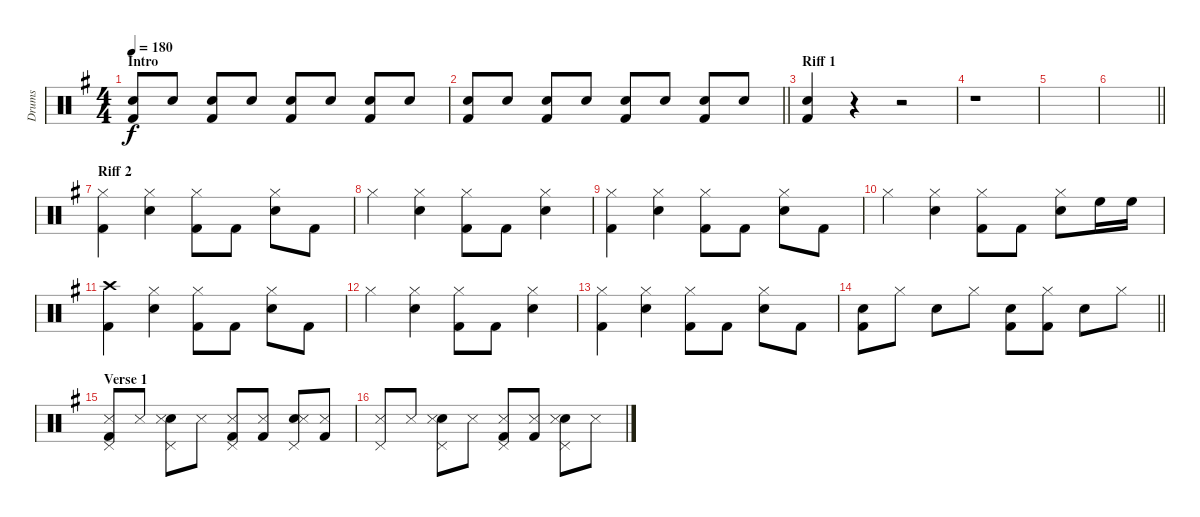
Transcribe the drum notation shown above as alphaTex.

\track ("Drums" "Drums") {instrument percussion bank 255}
\staff {score}
\articulation defaults
\ts (4 4)
\section ("" "Intro")
\tempo 180
\clef neutral
\ks g
("Snare (hit) 2" "Kick (hit) 2").8{dy f} "Snare (hit) 2".8 ("Snare (hit) 2" "Kick (hit) 2").8 "Snare (hit) 2".8 ("Snare (hit) 2" "Kick (hit) 2").8 "Snare (hit) 2".8 ("Snare (hit) 2" "Kick (hit) 2").8 "Snare (hit) 2".8 |
\barLineRight lightlight
("Snare (hit) 2" "Kick (hit) 2").8 "Snare (hit) 2".8 ("Snare (hit) 2" "Kick (hit) 2").8 "Snare (hit) 2".8 ("Snare (hit) 2" "Kick (hit) 2").8 "Snare (hit) 2".8 ("Snare (hit) 2" "Kick (hit) 2").8 "Snare (hit) 2".8 |
\section ("" "Riff 1")
("Snare (hit) 2" "Kick (hit) 2").4 r.4 r.2 |
r.1 |
|
\barLineRight lightlight
|
\section ("" "Riff 2")
("Hi-Hat (closed)" "Kick (hit) 2").4 ("Hi-Hat (closed)" "Snare (hit) 2").4 ("Hi-Hat (closed)" "Kick (hit) 2").8 "Kick (hit) 2".8 ("Hi-Hat (closed)" "Snare (hit) 2").8 "Kick (hit) 2".8 |
"Hi-Hat (closed)".4 ("Hi-Hat (closed)" "Snare (hit) 2").4 ("Hi-Hat (closed)" "Kick (hit) 2").8 "Kick (hit) 2".8 ("Hi-Hat (closed)" "Snare (hit) 2").4 |
("Hi-Hat (closed)" "Kick (hit) 2").4 ("Hi-Hat (closed)" "Snare (hit) 2").4 ("Hi-Hat (closed)" "Kick (hit) 2").8 "Kick (hit) 2".8 ("Hi-Hat (closed)" "Snare (hit) 2").8 "Kick (hit) 2".8 |
"Hi-Hat (closed)".4 ("Hi-Hat (closed)" "Snare (hit) 2").4 ("Hi-Hat (closed)" "Kick (hit) 2").8 "Kick (hit) 2".8 ("Hi-Hat (closed)" "Snare (hit) 2").8 "High Floor Tom (hit)".16 "High Floor Tom (hit)".16 |
("Crash high (hit)" "Kick (hit) 2").4 ("Hi-Hat (closed)" "Snare (hit) 2").4 ("Hi-Hat (closed)" "Kick (hit) 2").8 "Kick (hit) 2".8 ("Hi-Hat (closed)" "Snare (hit) 2").8 "Kick (hit) 2".8 |
"Hi-Hat (closed)".4 ("Hi-Hat (closed)" "Snare (hit) 2").4 ("Hi-Hat (closed)" "Kick (hit) 2").8 "Kick (hit) 2".8 ("Hi-Hat (closed)" "Snare (hit) 2").4 |
("Hi-Hat (closed)" "Kick (hit) 2").4 ("Hi-Hat (closed)" "Snare (hit) 2").4 ("Hi-Hat (closed)" "Kick (hit) 2").8 "Kick (hit) 2".8 ("Hi-Hat (closed)" "Snare (hit) 2").8 "Kick (hit) 2".8 |
\barLineRight lightlight
("Snare (hit) 2" "Kick (hit) 2").8 "Hi-Hat (closed)".8 "Snare (hit) 2".8 "Hi-Hat (closed)".8 ("Snare (hit) 2" "Kick (hit) 2").8 ("Hi-Hat (closed)" "Kick (hit) 2").8 "Snare (hit) 2".8 "Hi-Hat (closed)".8 |
\section ("" "Verse 1")
("Pedal Hi-Hat (hit)" "Snare (side stick) 3" "Kick (hit) 2").8 "Snare (side stick) 3".8 ("Pedal Hi-Hat (hit)" "Snare (hit) 2" "Snare (side stick) 3").8 "Snare (side stick) 3".8 ("Pedal Hi-Hat (hit)" "Snare (side stick) 3" "Kick (hit) 2").8 ("Snare (side stick) 3" "Kick (hit) 2").8 ("Pedal Hi-Hat (hit)" "Snare (hit) 2" "Snare (side stick) 3").8 ("Snare (side stick) 3" "Kick (hit) 2").8 |
("Pedal Hi-Hat (hit)" "Snare (side stick) 3").8 "Snare (side stick) 3".8 ("Pedal Hi-Hat (hit)" "Snare (hit) 2" "Snare (side stick) 3").8 "Snare (side stick) 3".8 ("Pedal Hi-Hat (hit)" "Snare (side stick) 3" "Kick (hit) 2").8 ("Snare (side stick) 3" "Kick (hit) 2").8 ("Pedal Hi-Hat (hit)" "Snare (hit) 2" "Snare (side stick) 3").8 "Snare (side stick) 3".8
